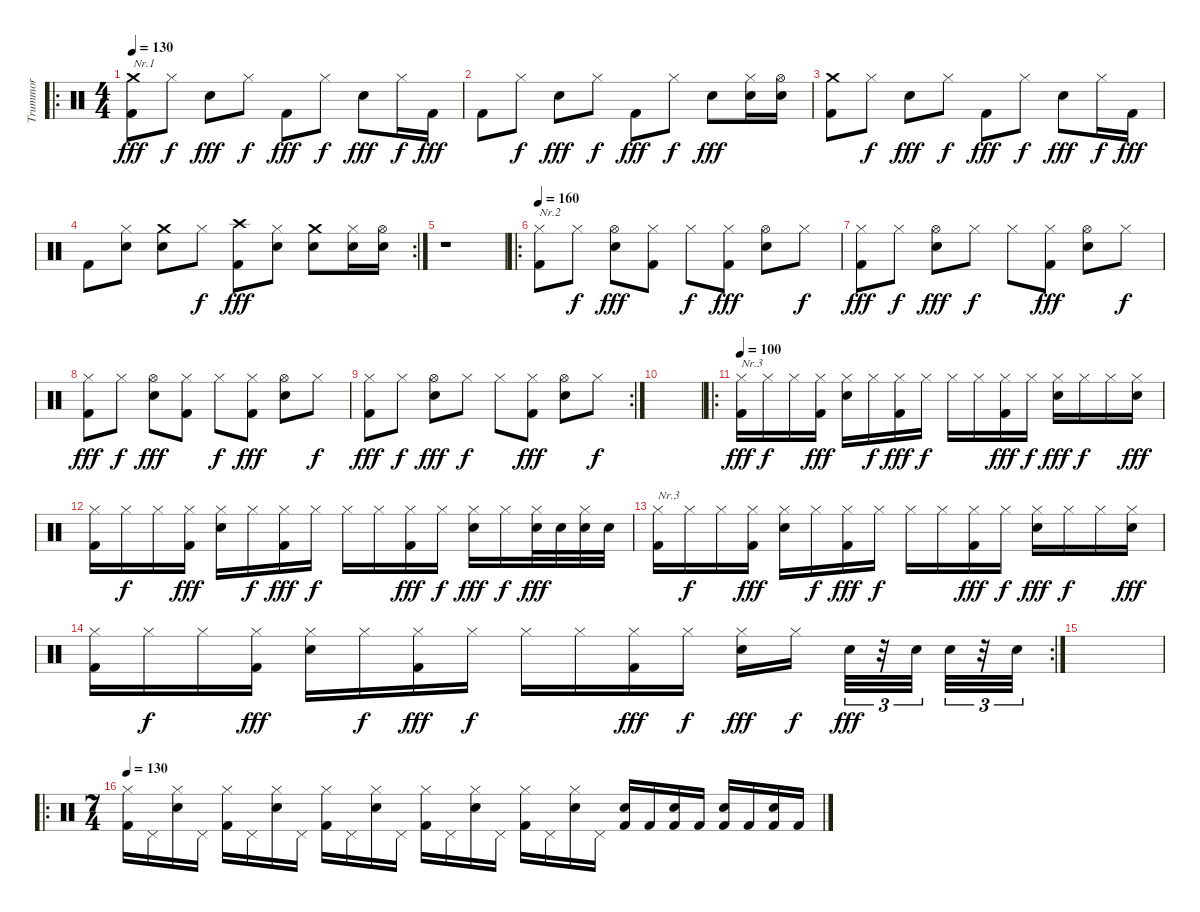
\track ("Trummor" "Trummor") {instrument percussion}
\staff {score}
\articulation defaults
\ro
\ts (4 4)
\section ("" "")
\tempo 130
\clef neutral
\ks c
("Crash medium (hit)" "Kick (hit) 2").8{txt "Nr.1" dy fff} "Hi-Hat (closed)".8{dy f} "Electric Snare (hit)".8{dy fff} "Hi-Hat (closed)".8{dy f} "Kick (hit) 2".8{dy fff} "Hi-Hat (closed)".8{dy f} "Electric Snare (hit)".8{dy fff} "Hi-Hat (closed)".16{dy f} "Kick (hit) 2".16{dy fff} |
"Kick (hit) 2".8 "Hi-Hat (closed)".8{dy f} "Electric Snare (hit)".8{dy fff} "Hi-Hat (closed)".8{dy f} "Kick (hit) 2".8{dy fff} "Hi-Hat (closed)".8{dy f} "Electric Snare (hit)".8{dy fff} ("Hi-Hat (closed)" "Electric Snare (hit)").16 ("Hi-Hat (open)" "Electric Snare (hit)").16 |
("Crash medium (hit)" "Kick (hit) 2").8 "Hi-Hat (closed)".8{dy f} "Electric Snare (hit)".8{dy fff} "Hi-Hat (closed)".8{dy f} "Kick (hit) 2".8{dy fff} "Hi-Hat (closed)".8{dy f} "Electric Snare (hit)".8{dy fff} "Hi-Hat (closed)".16{dy f} "Kick (hit) 2".16{dy fff} |
\rc 2 "Kick (hit) 2".8
("Hi-Hat (closed)" "Electric Snare (hit)").8 ("Crash medium (hit)" "Electric Snare (hit)").8 "Hi-Hat (closed)".8{dy f} ("Crash high (hit)" "Kick (hit) 2").8{dy fff} ("Hi-Hat (closed)" "Electric Snare (hit)").8 ("Crash medium (hit)" "Electric Snare (hit)").8 ("Hi-Hat (closed)" "Electric Snare (hit)").16 ("Hi-Hat (open)" "Electric Snare (hit)").16 |
r.1 |
\ro
\tempo 160
("Hi-Hat (closed)" "Kick (hit) 2").8{txt "Nr.2"} "Hi-Hat (closed)".8{dy f} ("Hi-Hat (open)" "Electric Snare (hit)").8{dy fff} ("Hi-Hat (closed)" "Kick (hit) 2").8 "Hi-Hat (closed)".8{dy f} ("Hi-Hat (closed)" "Kick (hit) 2").8{dy fff} ("Hi-Hat (open)" "Electric Snare (hit)").8 "Hi-Hat (closed)".8{dy f} |
("Hi-Hat (closed)" "Kick (hit) 2").8{dy fff} "Hi-Hat (closed)".8{dy f} ("Hi-Hat (open)" "Electric Snare (hit)").8{dy fff} "Hi-Hat (closed)".8{dy f} "Hi-Hat (closed)".8 ("Hi-Hat (closed)" "Kick (hit) 2").8{dy fff} ("Hi-Hat (open)" "Electric Snare (hit)").8 "Hi-Hat (closed)".8{dy f} |
("Hi-Hat (closed)" "Kick (hit) 2").8{dy fff} "Hi-Hat (closed)".8{dy f} ("Hi-Hat (open)" "Electric Snare (hit)").8{dy fff} ("Hi-Hat (closed)" "Kick (hit) 2").8 "Hi-Hat (closed)".8{dy f} ("Hi-Hat (closed)" "Kick (hit) 2").8{dy fff} ("Hi-Hat (open)" "Electric Snare (hit)").8 "Hi-Hat (closed)".8{dy f} |
\rc 2
("Hi-Hat (closed)" "Kick (hit) 2").8{dy fff} "Hi-Hat (closed)".8{dy f} ("Hi-Hat (open)" "Electric Snare (hit)").8{dy fff} "Hi-Hat (closed)".8{dy f} "Hi-Hat (closed)".8 ("Hi-Hat (closed)" "Kick (hit) 2").8{dy fff} ("Hi-Hat (open)" "Electric Snare (hit)").8 "Hi-Hat (closed)".8{dy f} |
|
\ro
\tempo 100
("Hi-Hat (closed)" "Kick (hit) 2").16{txt "Nr.3" dy fff} "Hi-Hat (closed)".16{dy f} "Hi-Hat (closed)".16 ("Hi-Hat (closed)" "Kick (hit) 2").16{dy fff} ("Hi-Hat (closed)" "Electric Snare (hit)").16 "Hi-Hat (closed)".16{dy f} ("Hi-Hat (closed)" "Kick (hit) 2").16{dy fff} "Hi-Hat (closed)".16{dy f} "Hi-Hat (closed)".16 "Hi-Hat (closed)".16 ("Hi-Hat (closed)" "Kick (hit) 2").16{dy fff} "Hi-Hat (closed)".16{dy f} ("Hi-Hat (closed)" "Electric Snare (hit)").16{dy fff} "Hi-Hat (closed)".16{dy f} "Hi-Hat (closed)".16 ("Hi-Hat (closed)" "Electric Snare (hit)").16{dy fff} |
("Hi-Hat (closed)" "Kick (hit) 2").16 "Hi-Hat (closed)".16{dy f} "Hi-Hat (closed)".16 ("Hi-Hat (closed)" "Kick (hit) 2").16{dy fff} ("Hi-Hat (closed)" "Electric Snare (hit)").16 "Hi-Hat (closed)".16{dy f} ("Hi-Hat (closed)" "Kick (hit) 2").16{dy fff} "Hi-Hat (closed)".16{dy f} "Hi-Hat (closed)".16 "Hi-Hat (closed)".16 ("Hi-Hat (closed)" "Kick (hit) 2").16{dy fff} "Hi-Hat (closed)".16{dy f} ("Hi-Hat (closed)" "Electric Snare (hit)").16{dy fff} "Hi-Hat (closed)".16{dy f} ("Hi-Hat (closed)" "Electric Snare (hit)").32{dy fff} "Electric Snare (hit)".32 ("Hi-Hat (closed)" "Electric Snare (hit)").32 "Electric Snare (hit)".32 |
("Hi-Hat (closed)" "Kick (hit) 2").16{txt "Nr.3"} "Hi-Hat (closed)".16{dy f} "Hi-Hat (closed)".16 ("Hi-Hat (closed)" "Kick (hit) 2").16{dy fff} ("Hi-Hat (closed)" "Electric Snare (hit)").16 "Hi-Hat (closed)".16{dy f} ("Hi-Hat (closed)" "Kick (hit) 2").16{dy fff} "Hi-Hat (closed)".16{dy f} "Hi-Hat (closed)".16 "Hi-Hat (closed)".16 ("Hi-Hat (closed)" "Kick (hit) 2").16{dy fff} "Hi-Hat (closed)".16{dy f} ("Hi-Hat (closed)" "Electric Snare (hit)").16{dy fff} "Hi-Hat (closed)".16{dy f} "Hi-Hat (closed)".16 ("Hi-Hat (closed)" "Electric Snare (hit)").16{dy fff} |
\rc 2
("Hi-Hat (closed)" "Kick (hit) 2").16 "Hi-Hat (closed)".16{dy f} "Hi-Hat (closed)".16 ("Hi-Hat (closed)" "Kick (hit) 2").16{dy fff} ("Hi-Hat (closed)" "Electric Snare (hit)").16 "Hi-Hat (closed)".16{dy f} ("Hi-Hat (closed)" "Kick (hit) 2").16{dy fff} "Hi-Hat (closed)".16{dy f} "Hi-Hat (closed)".16 "Hi-Hat (closed)".16 ("Hi-Hat (closed)" "Kick (hit) 2").16{dy fff} "Hi-Hat (closed)".16{dy f} ("Hi-Hat (closed)" "Electric Snare (hit)").16{dy fff} "Hi-Hat (closed)".16{dy f} "Electric Snare (hit)".32{tu (3 2) dy fff} r.32{tu (3 2)} "Electric Snare (hit)".32{tu (3 2)} "Electric Snare (hit)".32{tu (3 2)} r.32{tu (3 2)} "Electric Snare (hit)".32{tu (3 2)} |
|
\ro
\ts (7 4)
\tempo 130
("Hi-Hat (closed)" "Kick (hit) 2").16 "Pedal Hi-Hat (hit)".16 ("Hi-Hat (closed)" "Electric Snare (hit)").16 "Pedal Hi-Hat (hit)".16 ("Hi-Hat (closed)" "Kick (hit) 2").16 "Pedal Hi-Hat (hit)".16 ("Hi-Hat (closed)" "Electric Snare (hit)").16 "Pedal Hi-Hat (hit)".16 ("Hi-Hat (closed)" "Kick (hit) 2").16 "Pedal Hi-Hat (hit)".16 ("Hi-Hat (closed)" "Electric Snare (hit)").16 "Pedal Hi-Hat (hit)".16 ("Hi-Hat (closed)" "Kick (hit) 2").16 "Pedal Hi-Hat (hit)".16 ("Hi-Hat (closed)" "Electric Snare (hit)").16 "Pedal Hi-Hat (hit)".16 ("Hi-Hat (closed)" "Kick (hit) 2").16 "Pedal Hi-Hat (hit)".16 ("Hi-Hat (closed)" "Electric Snare (hit)").16 "Pedal Hi-Hat (hit)".16 ("Electric Snare (hit)" "Kick (hit) 2").16 "Kick (hit) 2".16 ("Electric Snare (hit)" "Kick (hit) 2").16 "Kick (hit) 2".16 ("Electric Snare (hit)" "Kick (hit) 2").16 "Kick (hit) 2".16 ("Electric Snare (hit)" "Kick (hit) 2").16 "Kick (hit) 2".16
